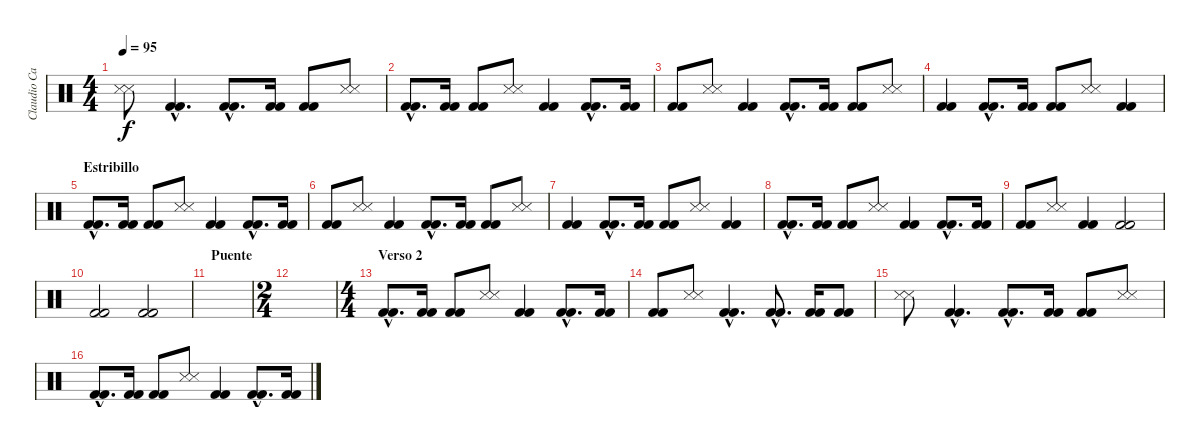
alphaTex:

\track ("Claudio Cardaci (Percusión)" "Claudio Ca") {instrument percussion}
\staff {score}
\articulation defaults
\ts (4 4)
\tempo 95
\clef neutral
\ks c
("Snare (side stick) 3" "Snare (side stick) 3").8{dy f} ("Kick (hit) 2"{hac} "Kick (hit) 2"{hac}).4{d} ("Kick (hit) 2"{hac} "Kick (hit) 2"{hac}).8{d} ("Kick (hit) 2" "Kick (hit) 2").16 ("Kick (hit) 2" "Kick (hit) 2").8 ("Snare (side stick) 3" "Snare (side stick) 3").8 |
("Kick (hit) 2"{hac} "Kick (hit) 2"{hac}).8{d} ("Kick (hit) 2" "Kick (hit) 2").16 ("Kick (hit) 2" "Kick (hit) 2").8 ("Snare (side stick) 3" "Snare (side stick) 3").8 ("Kick (hit) 2" "Kick (hit) 2").4 ("Kick (hit) 2"{hac} "Kick (hit) 2"{hac}).8{d} ("Kick (hit) 2" "Kick (hit) 2").16 |
("Kick (hit) 2" "Kick (hit) 2").8 ("Snare (side stick) 3" "Snare (side stick) 3").8 ("Kick (hit) 2" "Kick (hit) 2").4 ("Kick (hit) 2"{hac} "Kick (hit) 2"{hac}).8{d} ("Kick (hit) 2" "Kick (hit) 2").16 ("Kick (hit) 2" "Kick (hit) 2").8 ("Snare (side stick) 3" "Snare (side stick) 3").8 |
("Kick (hit) 2" "Kick (hit) 2").4 ("Kick (hit) 2"{hac} "Kick (hit) 2"{hac}).8{d} ("Kick (hit) 2" "Kick (hit) 2").16 ("Kick (hit) 2" "Kick (hit) 2").8 ("Snare (side stick) 3" "Snare (side stick) 3").8 ("Kick (hit) 2" "Kick (hit) 2").4 |
\section ("" "Estribillo")
("Kick (hit) 2"{hac} "Kick (hit) 2"{hac}).8{d} ("Kick (hit) 2" "Kick (hit) 2").16 ("Kick (hit) 2" "Kick (hit) 2").8 ("Snare (side stick) 3" "Snare (side stick) 3").8 ("Kick (hit) 2" "Kick (hit) 2").4 ("Kick (hit) 2"{hac} "Kick (hit) 2"{hac}).8{d} ("Kick (hit) 2" "Kick (hit) 2").16 |
("Kick (hit) 2" "Kick (hit) 2").8 ("Snare (side stick) 3" "Snare (side stick) 3").8 ("Kick (hit) 2" "Kick (hit) 2").4 ("Kick (hit) 2"{hac} "Kick (hit) 2"{hac}).8{d} ("Kick (hit) 2" "Kick (hit) 2").16 ("Kick (hit) 2" "Kick (hit) 2").8 ("Snare (side stick) 3" "Snare (side stick) 3").8 |
("Kick (hit) 2" "Kick (hit) 2").4 ("Kick (hit) 2"{hac} "Kick (hit) 2"{hac}).8{d} ("Kick (hit) 2" "Kick (hit) 2").16 ("Kick (hit) 2" "Kick (hit) 2").8 ("Snare (side stick) 3" "Snare (side stick) 3").8 ("Kick (hit) 2" "Kick (hit) 2").4 |
("Kick (hit) 2"{hac} "Kick (hit) 2"{hac}).8{d} ("Kick (hit) 2" "Kick (hit) 2").16 ("Kick (hit) 2" "Kick (hit) 2").8 ("Snare (side stick) 3" "Snare (side stick) 3").8 ("Kick (hit) 2" "Kick (hit) 2").4 ("Kick (hit) 2"{hac} "Kick (hit) 2"{hac}).8{d} ("Kick (hit) 2" "Kick (hit) 2").16 |
("Kick (hit) 2" "Kick (hit) 2").8 ("Snare (side stick) 3" "Snare (side stick) 3").8 ("Kick (hit) 2" "Kick (hit) 2").4 ("Kick (hit) 2" "Kick (hit) 2").2 |
("Kick (hit) 2" "Kick (hit) 2").2 ("Kick (hit) 2" "Kick (hit) 2").2 |
\section ("" "Puente")
|
\ts (2 4)
|
\ts (4 4)
\section ("" "Verso 2")
("Kick (hit) 2"{hac} "Kick (hit) 2"{hac}).8{d} ("Kick (hit) 2" "Kick (hit) 2").16 ("Kick (hit) 2" "Kick (hit) 2").8 ("Snare (side stick) 3" "Snare (side stick) 3").8 ("Kick (hit) 2" "Kick (hit) 2").4 ("Kick (hit) 2"{hac} "Kick (hit) 2"{hac}).8{d} ("Kick (hit) 2" "Kick (hit) 2").16 |
("Kick (hit) 2" "Kick (hit) 2").8 ("Snare (side stick) 3" "Snare (side stick) 3").8 ("Kick (hit) 2"{hac} "Kick (hit) 2"{hac}).4{d} ("Kick (hit) 2"{hac} "Kick (hit) 2"{hac}).8{d} ("Kick (hit) 2" "Kick (hit) 2").16 ("Kick (hit) 2" "Kick (hit) 2").8 |
("Snare (side stick) 3" "Snare (side stick) 3").8 ("Kick (hit) 2"{hac} "Kick (hit) 2"{hac}).4{d} ("Kick (hit) 2"{hac} "Kick (hit) 2"{hac}).8{d} ("Kick (hit) 2" "Kick (hit) 2").16 ("Kick (hit) 2" "Kick (hit) 2").8 ("Snare (side stick) 3" "Snare (side stick) 3").8 |
("Kick (hit) 2"{hac} "Kick (hit) 2"{hac}).8{d} ("Kick (hit) 2" "Kick (hit) 2").16 ("Kick (hit) 2" "Kick (hit) 2").8 ("Snare (side stick) 3" "Snare (side stick) 3").8 ("Kick (hit) 2" "Kick (hit) 2").4 ("Kick (hit) 2"{hac} "Kick (hit) 2"{hac}).8{d} ("Kick (hit) 2" "Kick (hit) 2").16
